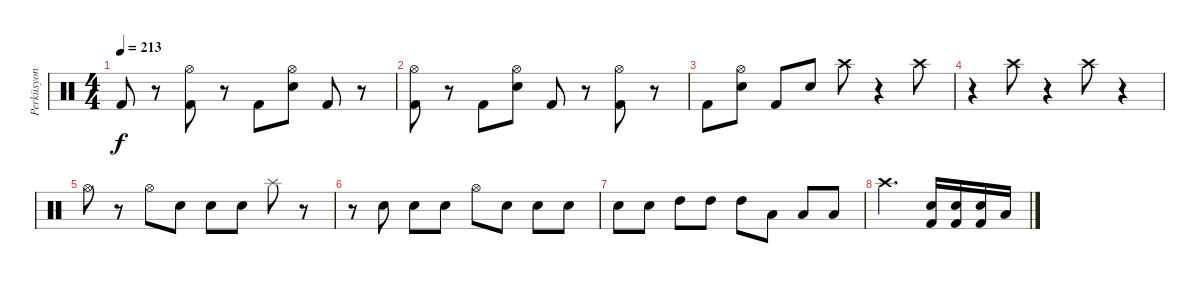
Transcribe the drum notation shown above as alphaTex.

\track ("Perküsyon" "Perküsyon") {instrument percussion}
\staff {score}
\articulation defaults
\ts (4 4)
\tempo 213
\clef neutral
\ks c "Kick (hit) 2".8{dy f}
r.8 ("Hi-Hat (open)" "Kick (hit) 2").8 r.8 "Kick (hit) 2".8 ("Hi-Hat (open)" "Electric Snare (hit)").8 "Kick (hit) 2".8 r.8 |
("Hi-Hat (open)" "Kick (hit) 2").8 r.8 "Kick (hit) 2".8 ("Hi-Hat (open)" "Electric Snare (hit)").8 "Kick (hit) 2".8 r.8 ("Hi-Hat (open)" "Kick (hit) 2").8 r.8 |
"Kick (hit) 2".8 ("Hi-Hat (open)" "Electric Snare (hit)").8 "Kick (hit) 2".8 "Electric Snare (hit)".8 "Crash high (hit)".8 r.4 "Crash high (hit)".8 |
r.4 "Crash high (hit)".8 r.4 "Crash high (hit)".8 r.4 |
"Hi-Hat (open)".8 r.8 "Hi-Hat (open)".8 "Electric Snare (hit)".8 "Electric Snare (hit)".8 "Electric Snare (hit)".8 "Splash (hit)".8 r.8 |
r.8 "Electric Snare (hit)".8 "Electric Snare (hit)".8 "Electric Snare (hit)".8 "Hi-Hat (open)".8 "Electric Snare (hit)".8 "Electric Snare (hit)".8 "Electric Snare (hit)".8 |
"Electric Snare (hit)".8 "Electric Snare (hit)".8 "High Tom (hit)".8 "High Tom (hit)".8 "High Tom (hit)".8 "Low Tom (hit)".8 "Low Tom (hit)".8 "Low Tom (hit)".8 |
"Crash high (hit)".2{d} ("Electric Snare (hit)" "Kick (hit) 2").16 ("Electric Snare (hit)" "Kick (hit) 2").16 ("Electric Snare (hit)" "Kick (hit) 2").16 "Low Tom (hit)".16
